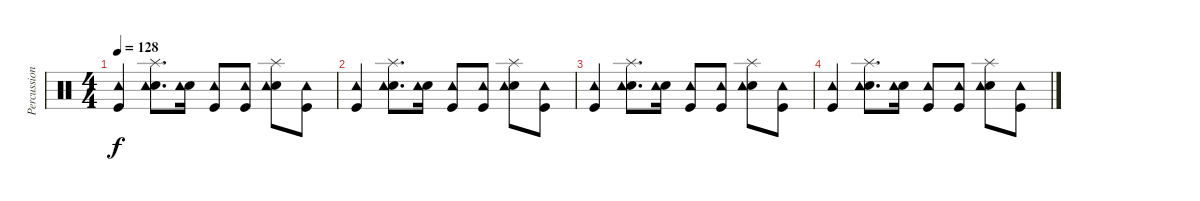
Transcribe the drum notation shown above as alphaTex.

\track ("Percussions" "Percussion") {instrument percussion}
\staff {score}
\articulation defaults
\ts (4 4)
\tempo 128
\clef neutral
\ks c
("Kick (hit)" "Tambourine (hit)").4{dy f} ("Snare (hit) 2" "Tambourine (hit)" "Splash (hit)").8{d} ("Snare (hit) 2" "Tambourine (hit)").16 ("Kick (hit)" "Tambourine (hit)").8 ("Kick (hit)" "Tambourine (hit)").8 ("Snare (hit) 2" "Tambourine (hit)" "Splash (hit)").8 ("Kick (hit)" "Tambourine (hit)").8 |
("Kick (hit)" "Tambourine (hit)").4 ("Snare (hit) 2" "Tambourine (hit)" "Splash (hit)").8{d} ("Snare (hit) 2" "Tambourine (hit)").16 ("Kick (hit)" "Tambourine (hit)").8 ("Kick (hit)" "Tambourine (hit)").8 ("Snare (hit) 2" "Tambourine (hit)" "Splash (hit)").8 ("Kick (hit)" "Tambourine (hit)").8 |
("Kick (hit)" "Tambourine (hit)").4 ("Snare (hit) 2" "Tambourine (hit)" "Splash (hit)").8{d} ("Snare (hit) 2" "Tambourine (hit)").16 ("Kick (hit)" "Tambourine (hit)").8 ("Kick (hit)" "Tambourine (hit)").8 ("Snare (hit) 2" "Tambourine (hit)" "Splash (hit)").8 ("Kick (hit)" "Tambourine (hit)").8 |
("Kick (hit)" "Tambourine (hit)").4 ("Snare (hit) 2" "Tambourine (hit)" "Splash (hit)").8{d} ("Snare (hit) 2" "Tambourine (hit)").16 ("Kick (hit)" "Tambourine (hit)").8 ("Kick (hit)" "Tambourine (hit)").8 ("Snare (hit) 2" "Tambourine (hit)" "Splash (hit)").8 ("Kick (hit)" "Tambourine (hit)").8
